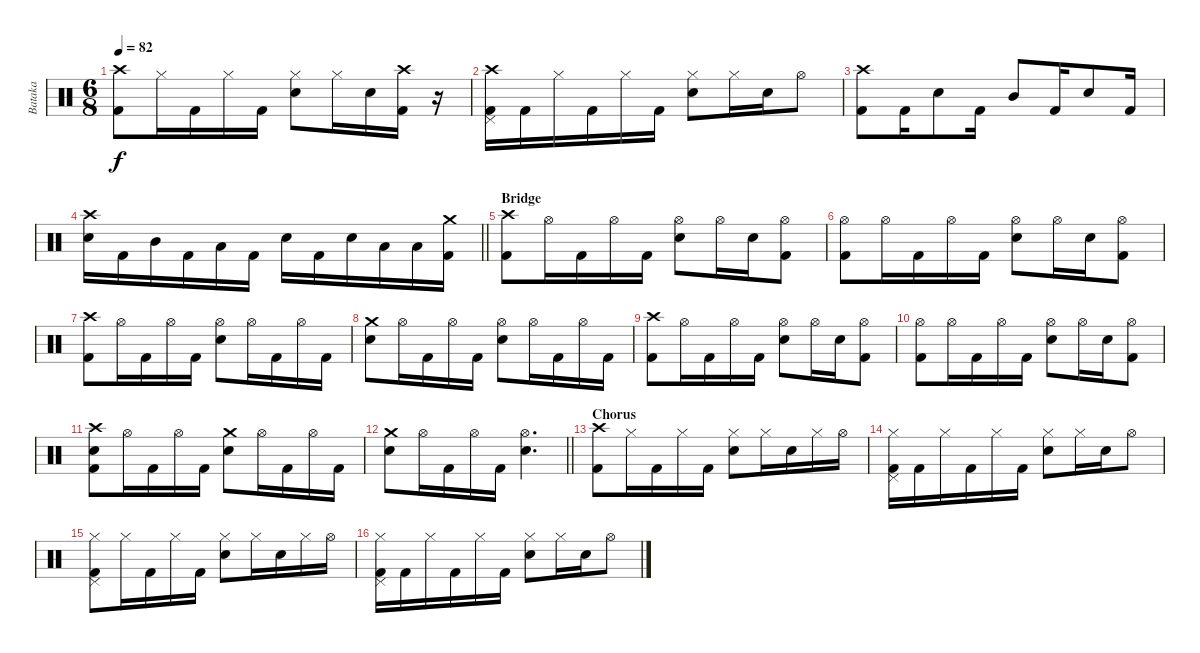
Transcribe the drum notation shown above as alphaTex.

\track ("Bataka" "Bataka") {instrument percussion}
\staff {score}
\articulation defaults
\ts (6 8)
\tempo 82
\clef neutral
\ks c
("Crash high (hit)" "Kick (hit) 2").8{dy f} "Hi-Hat (closed)".16 "Kick (hit) 2".16 "Hi-Hat (closed)".16 "Kick (hit) 2".16 ("Hi-Hat (closed)" "Snare (hit) 2").8 "Hi-Hat (closed)".16 "Snare (hit) 2".16 ("Crash high (hit)" "Kick (hit) 2").16 r.16 |
("Crash high (hit)" "Pedal Hi-Hat (hit)" "Kick (hit) 2").16 "Kick (hit) 2".16 "Hi-Hat (closed)".16 "Kick (hit) 2".16 "Hi-Hat (closed)".16 "Kick (hit) 2".16 ("Hi-Hat (closed)" "Snare (hit) 2").8 "Hi-Hat (closed)".16 "Snare (hit) 2".16 "Hi-Hat (open)".8 |
("Crash high (hit)" "Kick (hit) 2").8 "Kick (hit) 2".16 "Snare (hit) 2".8 "Kick (hit) 2".16 "Mid Tom (hit)".8 "Kick (hit) 2".16 "Snare (hit) 2".8 "Kick (hit) 2".16 |
\barLineRight lightlight
("Crash high (hit)" "Snare (hit) 2").16 "Kick (hit) 2".16 "Mid Tom (hit)".16 "Kick (hit) 2".16 "Low Tom (hit)".16 "Kick (hit) 2".16 "Snare (hit) 2".16 "Kick (hit) 2".16 "Snare (hit) 2".16 "Low Tom (hit)".16 "Low Tom (hit)".16 ("Crash medium (hit)" "Kick (hit) 2").16 |
\section ("" "Bridge")
("Crash high (hit)" "Kick (hit) 2").8 "Hi-Hat (open)".16 "Kick (hit) 2".16 "Hi-Hat (open)".16 "Kick (hit) 2".16 ("Hi-Hat (open)" "Snare (hit) 2").8 "Hi-Hat (open)".16 "Snare (hit) 2".16 ("Hi-Hat (open)" "Kick (hit) 2").8 |
("Hi-Hat (open)" "Kick (hit) 2").8 "Hi-Hat (open)".16 "Kick (hit) 2".16 "Hi-Hat (open)".16 "Kick (hit) 2".16 ("Hi-Hat (open)" "Snare (hit) 2").8 "Hi-Hat (open)".16 "Snare (hit) 2".16 ("Hi-Hat (open)" "Kick (hit) 2").8 |
("Crash high (hit)" "Kick (hit) 2").8 "Hi-Hat (open)".16 "Kick (hit) 2".16 "Hi-Hat (open)".16 "Kick (hit) 2".16 ("Hi-Hat (open)" "Snare (hit) 2").8 "Hi-Hat (open)".16 "Kick (hit) 2".16 "Hi-Hat (open)".16 "Kick (hit) 2".16 |
("Crash medium (hit)" "Snare (hit) 2").8 "Hi-Hat (open)".16 "Kick (hit) 2".16 "Hi-Hat (open)".16 "Kick (hit) 2".16 ("Hi-Hat (open)" "Snare (hit) 2").8 "Hi-Hat (open)".16 "Kick (hit) 2".16 "Hi-Hat (open)".16 "Kick (hit) 2".16 |
("Crash high (hit)" "Kick (hit) 2").8 "Hi-Hat (open)".16 "Kick (hit) 2".16 "Hi-Hat (open)".16 "Kick (hit) 2".16 ("Hi-Hat (open)" "Snare (hit) 2").8 "Hi-Hat (open)".16 "Snare (hit) 2".16 ("Hi-Hat (open)" "Kick (hit) 2").8 |
("Hi-Hat (open)" "Kick (hit) 2").8 "Hi-Hat (open)".16 "Kick (hit) 2".16 "Hi-Hat (open)".16 "Kick (hit) 2".16 ("Hi-Hat (open)" "Snare (hit) 2").8 "Hi-Hat (open)".16 "Snare (hit) 2".16 ("Hi-Hat (open)" "Kick (hit) 2").8 |
("Crash high (hit)" "Snare (hit) 2" "Kick (hit) 2").8 "Hi-Hat (open)".16 "Kick (hit) 2".16 "Hi-Hat (open)".16 "Kick (hit) 2".16 ("Crash medium (hit)" "Snare (hit) 2").8 "Hi-Hat (open)".16 "Kick (hit) 2".16 "Hi-Hat (open)".16 "Kick (hit) 2".16 |
\barLineRight lightlight
("Crash medium (hit)" "Snare (hit) 2").8 "Hi-Hat (open)".16 "Kick (hit) 2".16 "Hi-Hat (open)".16 "Kick (hit) 2".16 ("Hi-Hat (open)" "Snare (hit) 2").4{d} |
\section ("" "Chorus")
("Crash high (hit)" "Kick (hit) 2").8 "Hi-Hat (closed)".16 "Kick (hit) 2".16 "Hi-Hat (closed)".16 "Kick (hit) 2".16 ("Hi-Hat (closed)" "Snare (hit) 2").8 "Hi-Hat (closed)".16 "Snare (hit) 2".16 "Hi-Hat (closed)".16 "Hi-Hat (open)".16 |
("Hi-Hat (closed)" "Pedal Hi-Hat (hit)" "Kick (hit) 2").16 "Kick (hit) 2".16 "Hi-Hat (closed)".16 "Kick (hit) 2".16 "Hi-Hat (closed)".16 "Kick (hit) 2".16 ("Hi-Hat (closed)" "Snare (hit) 2").8 "Hi-Hat (closed)".16 "Snare (hit) 2".16 "Hi-Hat (open)".8 |
("Hi-Hat (closed)" "Pedal Hi-Hat (hit)" "Kick (hit) 2").8 "Hi-Hat (closed)".16 "Kick (hit) 2".16 "Hi-Hat (closed)".16 "Kick (hit) 2".16 ("Hi-Hat (closed)" "Snare (hit) 2").8 "Hi-Hat (closed)".16 "Snare (hit) 2".16 "Hi-Hat (closed)".16 "Hi-Hat (open)".16 |
("Hi-Hat (closed)" "Pedal Hi-Hat (hit)" "Kick (hit) 2").16 "Kick (hit) 2".16 "Hi-Hat (closed)".16 "Kick (hit) 2".16 "Hi-Hat (closed)".16 "Kick (hit) 2".16 ("Hi-Hat (closed)" "Snare (hit) 2").8 "Hi-Hat (closed)".16 "Snare (hit) 2".16 "Hi-Hat (open)".8
